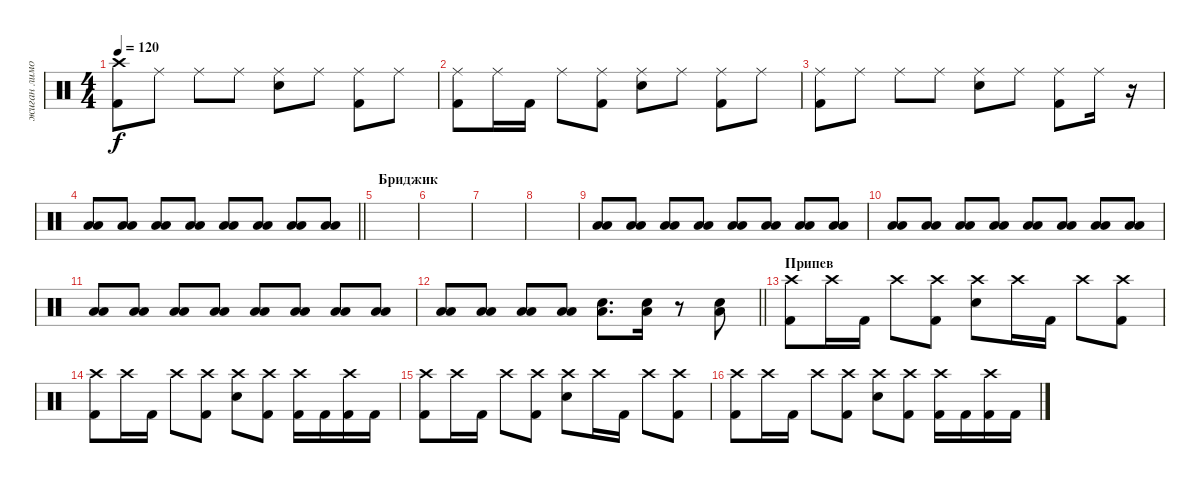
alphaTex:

\track ("жиган лимон" "жиган лимо") {instrument percussion}
\staff {score}
\articulation defaults
\ts (4 4)
\tempo 120
\clef neutral
\ks c
("Crash high (hit)" "Kick (hit) 2").8{dy f} "Ride (middle)".8 "Ride (middle)".8 "Ride (middle)".8 ("Ride (middle)" "Snare (hit) 2").8 "Ride (middle)".8 ("Ride (middle)" "Kick (hit) 2").8 "Ride (middle)".8 |
("Ride (middle)" "Kick (hit) 2").8 "Ride (middle)".16 "Kick (hit) 2".16 "Ride (middle)".8 ("Ride (middle)" "Kick (hit) 2").8 ("Ride (middle)" "Snare (hit) 2").8 "Ride (middle)".8 ("Ride (middle)" "Kick (hit) 2").8 "Ride (middle)".8 |
("Ride (middle)" "Kick (hit) 2").8 "Ride (middle)".8 "Ride (middle)".8 "Ride (middle)".8 ("Ride (middle)" "Snare (hit) 2").8 "Ride (middle)".8 ("Ride (middle)" "Kick (hit) 2").8 "Ride (middle)".16 r.16{volume 4} |
\barLineRight lightlight
("Low Tom (hit)" "Low Floor Tom (hit)").8{volume 13} ("Low Tom (hit)" "Low Floor Tom (hit)").8 ("Low Tom (hit)" "Low Floor Tom (hit)").8 ("Low Tom (hit)" "Low Floor Tom (hit)").8 ("Low Tom (hit)" "Low Floor Tom (hit)").8 ("Low Tom (hit)" "Low Floor Tom (hit)").8 ("Low Tom (hit)" "Low Floor Tom (hit)").8 ("Low Tom (hit)" "Low Floor Tom (hit)").8 |
\section ("" "Бриджик")
|
|
|
|
("Low Tom (hit)" "Low Floor Tom (hit)").8{volume 13} ("Low Tom (hit)" "Low Floor Tom (hit)").8 ("Low Tom (hit)" "Low Floor Tom (hit)").8 ("Low Tom (hit)" "Low Floor Tom (hit)").8 ("Low Tom (hit)" "Low Floor Tom (hit)").8 ("Low Tom (hit)" "Low Floor Tom (hit)").8 ("Low Tom (hit)" "Low Floor Tom (hit)").8 ("Low Tom (hit)" "Low Floor Tom (hit)").8 |
("Low Tom (hit)" "Low Floor Tom (hit)").8 ("Low Tom (hit)" "Low Floor Tom (hit)").8 ("Low Tom (hit)" "Low Floor Tom (hit)").8 ("Low Tom (hit)" "Low Floor Tom (hit)").8 ("Low Tom (hit)" "Low Floor Tom (hit)").8 ("Low Tom (hit)" "Low Floor Tom (hit)").8 ("Low Tom (hit)" "Low Floor Tom (hit)").8 ("Low Tom (hit)" "Low Floor Tom (hit)").8 |
("Low Tom (hit)" "Low Floor Tom (hit)").8 ("Low Tom (hit)" "Low Floor Tom (hit)").8 ("Low Tom (hit)" "Low Floor Tom (hit)").8 ("Low Tom (hit)" "Low Floor Tom (hit)").8 ("Low Tom (hit)" "Low Floor Tom (hit)").8 ("Low Tom (hit)" "Low Floor Tom (hit)").8 ("Low Tom (hit)" "Low Floor Tom (hit)").8 ("Low Tom (hit)" "Low Floor Tom (hit)").8 |
\barLineRight lightlight
("Low Tom (hit)" "Low Floor Tom (hit)").8 ("Low Tom (hit)" "Low Floor Tom (hit)").8 ("Low Tom (hit)" "Low Floor Tom (hit)").8 ("Low Tom (hit)" "Low Floor Tom (hit)").8 ("Snare (hit) 2" "Low Floor Tom (hit)").8{d} ("Snare (hit) 2" "Low Floor Tom (hit)").16 r.8 ("Snare (hit) 2" "Low Floor Tom (hit)").8 |
\section ("" "Припев")
("Crash high (hit)" "Kick (hit) 2").8 "Crash high (hit)".16 "Kick (hit) 2".16 "Crash high (hit)".8 ("Crash high (hit)" "Kick (hit) 2").8 ("Snare (hit) 2" "Crash high (hit)").8 "Crash high (hit)".16 "Kick (hit) 2".16 "Crash high (hit)".8 ("Crash high (hit)" "Kick (hit) 2").8 |
("Crash high (hit)" "Kick (hit) 2").8 "Crash high (hit)".16 "Kick (hit) 2".16 "Crash high (hit)".8 ("Crash high (hit)" "Kick (hit) 2").8 ("Snare (hit) 2" "Crash high (hit)").8 ("Crash high (hit)" "Kick (hit) 2").8 ("Crash high (hit)" "Kick (hit) 2").16 "Kick (hit) 2".16 ("Crash high (hit)" "Kick (hit) 2").16 "Kick (hit) 2".16 |
("Crash high (hit)" "Kick (hit) 2").8 "Crash high (hit)".16 "Kick (hit) 2".16 "Crash high (hit)".8 ("Crash high (hit)" "Kick (hit) 2").8 ("Snare (hit) 2" "Crash high (hit)").8 "Crash high (hit)".16 "Kick (hit) 2".16 "Crash high (hit)".8 ("Crash high (hit)" "Kick (hit) 2").8 |
("Crash high (hit)" "Kick (hit) 2").8 "Crash high (hit)".16 "Kick (hit) 2".16 "Crash high (hit)".8 ("Crash high (hit)" "Kick (hit) 2").8 ("Snare (hit) 2" "Crash high (hit)").8 ("Crash high (hit)" "Kick (hit) 2").8 ("Crash high (hit)" "Kick (hit) 2").16 "Kick (hit) 2".16 ("Crash high (hit)" "Kick (hit) 2").16 "Kick (hit) 2".16
